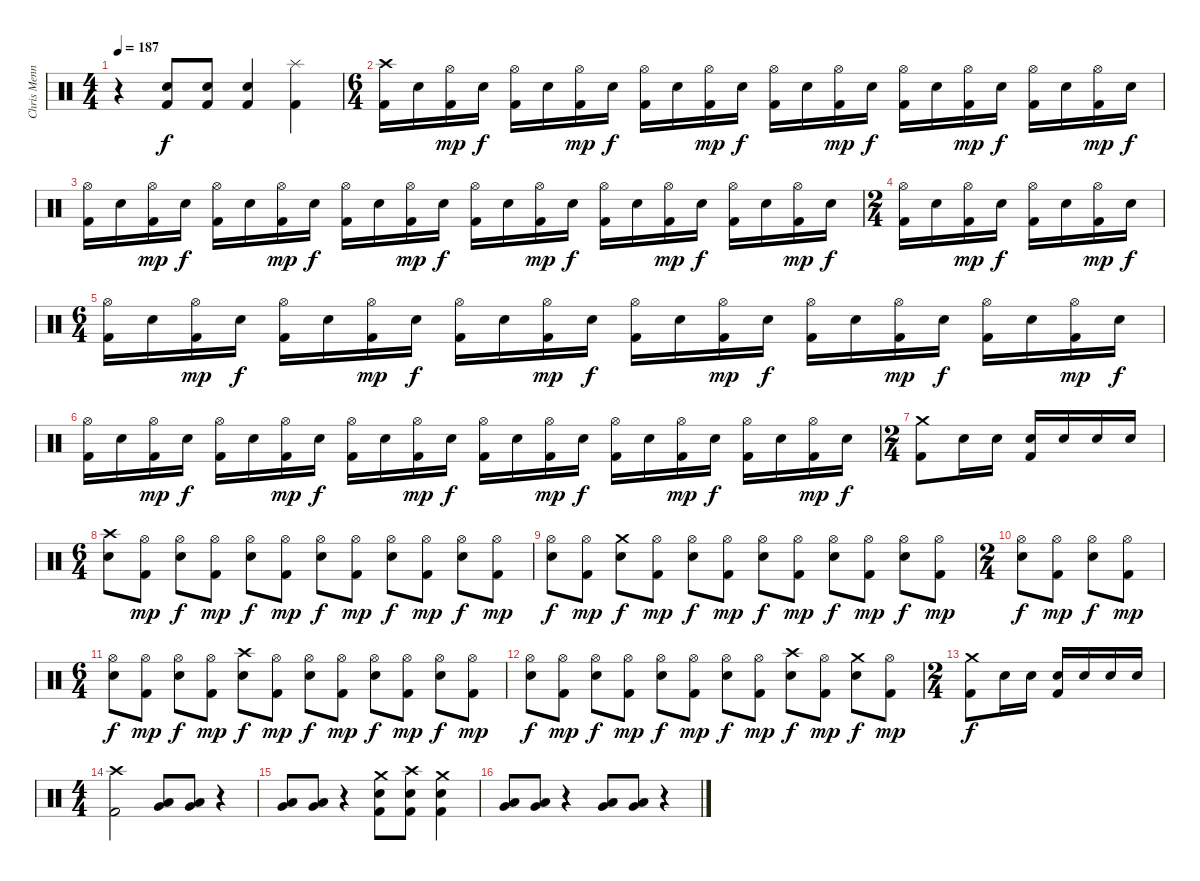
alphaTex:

\track ("Chris Menning" "Chris Menn") {instrument percussion}
\staff {score}
\articulation defaults
\ts (4 4)
\tempo 187
\clef neutral
\ks c
r.4{dy f} ("Electric Snare (hit)" "Kick (hit) 2").8 ("Electric Snare (hit)" "Kick (hit) 2").8 ("Electric Snare (hit)" "Kick (hit) 2").4 ("Splash (hit)" "Kick (hit) 2").4 |
\ts (6 4)
("Crash high (hit)" "Kick (hit) 2").16 "Electric Snare (hit)".16 ("Hi-Hat (open)" "Kick (hit) 2").16{dy mp} "Electric Snare (hit)".16{dy f} ("Hi-Hat (open)" "Kick (hit) 2").16 "Electric Snare (hit)".16 ("Hi-Hat (open)" "Kick (hit) 2").16{dy mp} "Electric Snare (hit)".16{dy f} ("Hi-Hat (open)" "Kick (hit) 2").16 "Electric Snare (hit)".16 ("Hi-Hat (open)" "Kick (hit) 2").16{dy mp} "Electric Snare (hit)".16{dy f} ("Hi-Hat (open)" "Kick (hit) 2").16 "Electric Snare (hit)".16 ("Hi-Hat (open)" "Kick (hit) 2").16{dy mp} "Electric Snare (hit)".16{dy f} ("Hi-Hat (open)" "Kick (hit) 2").16 "Electric Snare (hit)".16 ("Hi-Hat (open)" "Kick (hit) 2").16{dy mp} "Electric Snare (hit)".16{dy f} ("Hi-Hat (open)" "Kick (hit) 2").16 "Electric Snare (hit)".16 ("Hi-Hat (open)" "Kick (hit) 2").16{dy mp} "Electric Snare (hit)".16{dy f} |
("Hi-Hat (open)" "Kick (hit) 2").16 "Electric Snare (hit)".16 ("Hi-Hat (open)" "Kick (hit) 2").16{dy mp} "Electric Snare (hit)".16{dy f} ("Hi-Hat (open)" "Kick (hit) 2").16 "Electric Snare (hit)".16 ("Hi-Hat (open)" "Kick (hit) 2").16{dy mp} "Electric Snare (hit)".16{dy f} ("Hi-Hat (open)" "Kick (hit) 2").16 "Electric Snare (hit)".16 ("Hi-Hat (open)" "Kick (hit) 2").16{dy mp} "Electric Snare (hit)".16{dy f} ("Hi-Hat (open)" "Kick (hit) 2").16 "Electric Snare (hit)".16 ("Hi-Hat (open)" "Kick (hit) 2").16{dy mp} "Electric Snare (hit)".16{dy f} ("Hi-Hat (open)" "Kick (hit) 2").16 "Electric Snare (hit)".16 ("Hi-Hat (open)" "Kick (hit) 2").16{dy mp} "Electric Snare (hit)".16{dy f} ("Hi-Hat (open)" "Kick (hit) 2").16 "Electric Snare (hit)".16 ("Hi-Hat (open)" "Kick (hit) 2").16{dy mp} "Electric Snare (hit)".16{dy f} |
\ts (2 4)
("Hi-Hat (open)" "Kick (hit) 2").16 "Electric Snare (hit)".16 ("Hi-Hat (open)" "Kick (hit) 2").16{dy mp} "Electric Snare (hit)".16{dy f} ("Hi-Hat (open)" "Kick (hit) 2").16 "Electric Snare (hit)".16 ("Hi-Hat (open)" "Kick (hit) 2").16{dy mp} "Electric Snare (hit)".16{dy f} |
\ts (6 4)
("Hi-Hat (open)" "Kick (hit) 2").16 "Electric Snare (hit)".16 ("Hi-Hat (open)" "Kick (hit) 2").16{dy mp} "Electric Snare (hit)".16{dy f} ("Hi-Hat (open)" "Kick (hit) 2").16 "Electric Snare (hit)".16 ("Hi-Hat (open)" "Kick (hit) 2").16{dy mp} "Electric Snare (hit)".16{dy f} ("Hi-Hat (open)" "Kick (hit) 2").16 "Electric Snare (hit)".16 ("Hi-Hat (open)" "Kick (hit) 2").16{dy mp} "Electric Snare (hit)".16{dy f} ("Hi-Hat (open)" "Kick (hit) 2").16 "Electric Snare (hit)".16 ("Hi-Hat (open)" "Kick (hit) 2").16{dy mp} "Electric Snare (hit)".16{dy f} ("Hi-Hat (open)" "Kick (hit) 2").16 "Electric Snare (hit)".16 ("Hi-Hat (open)" "Kick (hit) 2").16{dy mp} "Electric Snare (hit)".16{dy f} ("Hi-Hat (open)" "Kick (hit) 2").16 "Electric Snare (hit)".16 ("Hi-Hat (open)" "Kick (hit) 2").16{dy mp} "Electric Snare (hit)".16{dy f} |
("Hi-Hat (open)" "Kick (hit) 2").16 "Electric Snare (hit)".16 ("Hi-Hat (open)" "Kick (hit) 2").16{dy mp} "Electric Snare (hit)".16{dy f} ("Hi-Hat (open)" "Kick (hit) 2").16 "Electric Snare (hit)".16 ("Hi-Hat (open)" "Kick (hit) 2").16{dy mp} "Electric Snare (hit)".16{dy f} ("Hi-Hat (open)" "Kick (hit) 2").16 "Electric Snare (hit)".16 ("Hi-Hat (open)" "Kick (hit) 2").16{dy mp} "Electric Snare (hit)".16{dy f} ("Hi-Hat (open)" "Kick (hit) 2").16 "Electric Snare (hit)".16 ("Hi-Hat (open)" "Kick (hit) 2").16{dy mp} "Electric Snare (hit)".16{dy f} ("Hi-Hat (open)" "Kick (hit) 2").16 "Electric Snare (hit)".16 ("Hi-Hat (open)" "Kick (hit) 2").16{dy mp} "Electric Snare (hit)".16{dy f} ("Hi-Hat (open)" "Kick (hit) 2").16 "Electric Snare (hit)".16 ("Hi-Hat (open)" "Kick (hit) 2").16{dy mp} "Electric Snare (hit)".16{dy f} |
\ts (2 4)
("Crash medium (hit)" "Kick (hit) 2").8 "Electric Snare (hit)".16 "Electric Snare (hit)".16 ("Electric Snare (hit)" "Kick (hit) 2").16 "Electric Snare (hit)".16 "Electric Snare (hit)".16 "Electric Snare (hit)".16 |
\ts (6 4)
("Crash high (hit)" "Electric Snare (hit)").8 ("Hi-Hat (open)" "Kick (hit) 2").8{dy mp} ("Hi-Hat (open)" "Electric Snare (hit)").8{dy f} ("Hi-Hat (open)" "Kick (hit) 2").8{dy mp} ("Hi-Hat (open)" "Electric Snare (hit)").8{dy f} ("Hi-Hat (open)" "Kick (hit) 2").8{dy mp} ("Hi-Hat (open)" "Electric Snare (hit)").8{dy f} ("Hi-Hat (open)" "Kick (hit) 2").8{dy mp} ("Hi-Hat (open)" "Electric Snare (hit)").8{dy f} ("Hi-Hat (open)" "Kick (hit) 2").8{dy mp} ("Hi-Hat (open)" "Electric Snare (hit)").8{dy f} ("Hi-Hat (open)" "Kick (hit) 2").8{dy mp} |
("Hi-Hat (open)" "Electric Snare (hit)").8{dy f} ("Hi-Hat (open)" "Kick (hit) 2").8{dy mp} ("Crash medium (hit)" "Electric Snare (hit)").8{dy f} ("Hi-Hat (open)" "Kick (hit) 2").8{dy mp} ("Hi-Hat (open)" "Electric Snare (hit)").8{dy f} ("Hi-Hat (open)" "Kick (hit) 2").8{dy mp} ("Hi-Hat (open)" "Electric Snare (hit)").8{dy f} ("Hi-Hat (open)" "Kick (hit) 2").8{dy mp} ("Hi-Hat (open)" "Electric Snare (hit)").8{dy f} ("Hi-Hat (open)" "Kick (hit) 2").8{dy mp} ("Hi-Hat (open)" "Electric Snare (hit)").8{dy f} ("Hi-Hat (open)" "Kick (hit) 2").8{dy mp} |
\ts (2 4)
("Hi-Hat (open)" "Electric Snare (hit)").8{dy f} ("Hi-Hat (open)" "Kick (hit) 2").8{dy mp} ("Hi-Hat (open)" "Electric Snare (hit)").8{dy f} ("Hi-Hat (open)" "Kick (hit) 2").8{dy mp} |
\ts (6 4)
("Hi-Hat (open)" "Electric Snare (hit)").8{dy f} ("Hi-Hat (open)" "Kick (hit) 2").8{dy mp} ("Hi-Hat (open)" "Electric Snare (hit)").8{dy f} ("Hi-Hat (open)" "Kick (hit) 2").8{dy mp} ("Crash high (hit)" "Electric Snare (hit)").8{dy f} ("Hi-Hat (open)" "Kick (hit) 2").8{dy mp} ("Hi-Hat (open)" "Electric Snare (hit)").8{dy f} ("Hi-Hat (open)" "Kick (hit) 2").8{dy mp} ("Hi-Hat (open)" "Electric Snare (hit)").8{dy f} ("Hi-Hat (open)" "Kick (hit) 2").8{dy mp} ("Hi-Hat (open)" "Electric Snare (hit)").8{dy f} ("Hi-Hat (open)" "Kick (hit) 2").8{dy mp} |
("Hi-Hat (open)" "Electric Snare (hit)").8{dy f} ("Hi-Hat (open)" "Kick (hit) 2").8{dy mp} ("Hi-Hat (open)" "Electric Snare (hit)").8{dy f} ("Hi-Hat (open)" "Kick (hit) 2").8{dy mp} ("Hi-Hat (open)" "Electric Snare (hit)").8{dy f} ("Hi-Hat (open)" "Kick (hit) 2").8{dy mp} ("Hi-Hat (open)" "Electric Snare (hit)").8{dy f} ("Hi-Hat (open)" "Kick (hit) 2").8{dy mp} ("Crash high (hit)" "Electric Snare (hit)").8{dy f} ("Hi-Hat (open)" "Kick (hit) 2").8{dy mp} ("Crash medium (hit)" "Electric Snare (hit)").8{dy f} ("Hi-Hat (open)" "Kick (hit) 2").8{dy mp} |
\ts (2 4)
("Crash medium (hit)" "Kick (hit) 2").8{dy f} "Electric Snare (hit)".16 "Electric Snare (hit)".16 ("Electric Snare (hit)" "Kick (hit) 2").16 "Electric Snare (hit)".16 "Electric Snare (hit)".16 "Electric Snare (hit)".16 |
\ts (4 4)
("Crash high (hit)" "Kick (hit) 2").2 ("Low Tom (hit)" "Very Low Tom (hit)").8 ("Low Tom (hit)" "Very Low Tom (hit)").8 r.4 |
("Low Tom (hit)" "Very Low Tom (hit)").8 ("Low Tom (hit)" "Very Low Tom (hit)").8 r.4 ("Crash medium (hit)" "Electric Snare (hit)" "Kick (hit) 2").8 ("Crash high (hit)" "Electric Snare (hit)" "Kick (hit) 2").8 ("Crash medium (hit)" "Electric Snare (hit)" "Kick (hit) 2").4 |
("Low Tom (hit)" "Very Low Tom (hit)").8 ("Low Tom (hit)" "Very Low Tom (hit)").8 r.4 ("Low Tom (hit)" "Very Low Tom (hit)").8 ("Low Tom (hit)" "Very Low Tom (hit)").8 r.4
